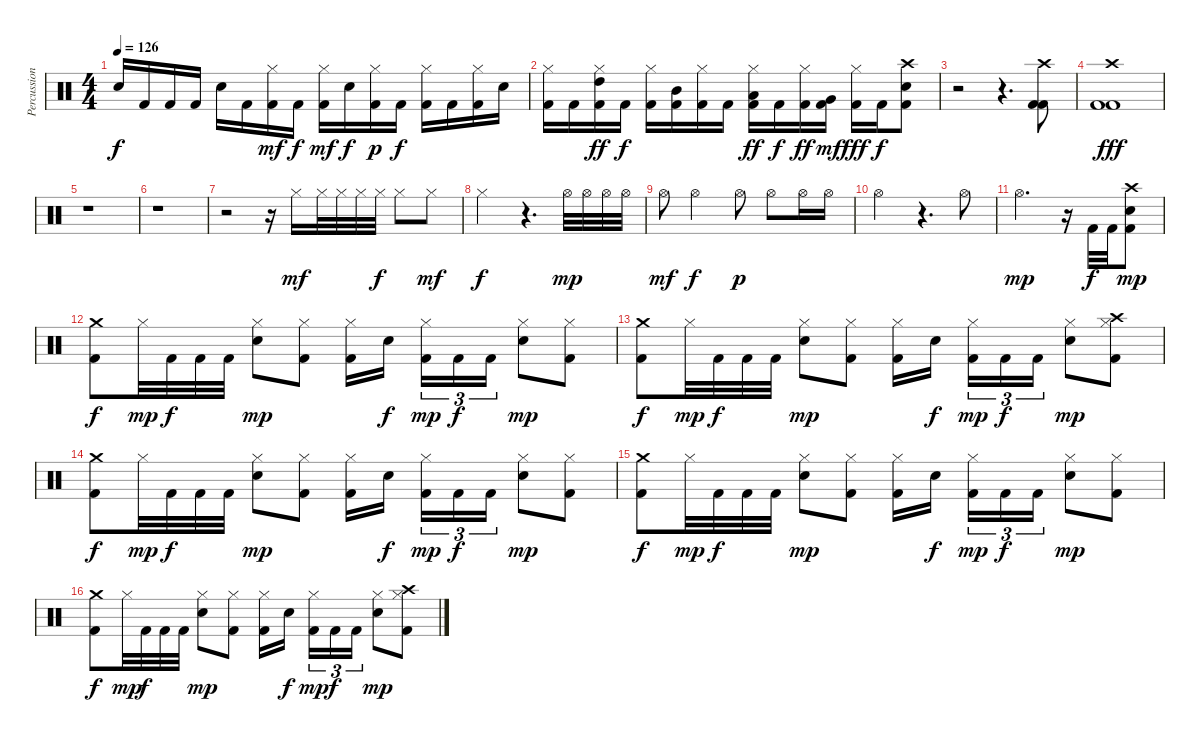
\track ("Percussion" "Percussion") {instrument percussion}
\staff {score}
\articulation defaults
\ts (4 4)
\tempo 126
\clef neutral
\ks c "Electric Snare (hit)".16{dy f} "Kick (hit) 2".16 "Kick (hit) 2".16 "Kick (hit) 2".16 "Electric Snare (hit)".16 "Kick (hit) 2".16
("Kick (hit) 2" "Hi-Hat (closed)").16{dy mf} "Kick (hit) 2".16{dy f} ("Kick (hit) 2" "Hi-Hat (closed)").16{dy mf} "Electric Snare (hit)".16{dy f} ("Kick (hit) 2" "Hi-Hat (closed)").16{dy p} "Kick (hit) 2".16{dy f} ("Kick (hit) 2" "Hi-Hat (closed)").16 "Kick (hit) 2".16 ("Kick (hit) 2" "Hi-Hat (closed)").16 "Electric Snare (hit)".16 |
("Kick (hit) 2" "Hi-Hat (closed)").16 "Kick (hit) 2".16 ("Kick (hit) 2" "High Tom (hit)" "Hi-Hat (closed)").16{dy ff} "Kick (hit) 2".16{dy f} ("Kick (hit) 2" "Hi-Hat (closed)").16 ("Kick (hit) 2" "Mid Tom (hit)").16 ("Kick (hit) 2" "Hi-Hat (closed)").16 "Kick (hit) 2".16 ("Kick (hit) 2" "Low Tom (hit)" "Hi-Hat (closed)").16{dy ff} "Kick (hit) 2".16{dy f} ("Kick (hit) 2" "Hi-Hat (closed)").16{dy ff} ("Kick (hit) 2" "Very Low Tom (hit)").16{dy mf} ("Kick (hit) 2" "Hi-Hat (closed)").16{dy fff} "Kick (hit) 2".16{dy f} ("Kick (hit) 2" "Electric Snare (hit)" "Crash high (hit)").8 |
r.2 r.4{d} ("Crash high (hit)" "Kick (hit) 2" "Kick (hit) 2").8 |
("Crash high (hit)" "Kick (hit) 2" "Kick (hit) 2").1{dy fff} |
r.1 |
r.1 |
r.2 r.16 "Hi-Hat (closed)".16{dy mf} "Hi-Hat (closed)".32 "Hi-Hat (closed)".32 "Hi-Hat (closed)".32 "Hi-Hat (closed)".32{dy f} "Hi-Hat (closed)".8 "Hi-Hat (closed)".8{dy mf} |
"Hi-Hat (closed)".2{dy f} r.4{d} "Hi-Hat (open)".32{dy mp} "Hi-Hat (open)".32 "Hi-Hat (open)".32 "Hi-Hat (open)".32 |
"Hi-Hat (open)".8{dy mf} "Hi-Hat (open)".2{dy f} "Hi-Hat (open)".8{dy p} "Hi-Hat (open)".8 "Hi-Hat (open)".16 "Hi-Hat (open)".16 |
"Hi-Hat (open)".2 r.4{d} "Hi-Hat (open)".8 |
"Hi-Hat (open)".2{d dy mp} r.16 "Kick (hit) 2".32{dy f} "Kick (hit) 2".32 ("Crash high (hit)" "Electric Snare (hit)" "Kick (hit) 2").8{dy mp} |
("Crash medium (hit)" "Kick (hit) 2").8{dy f} "Hi-Hat (closed)".32{dy mp} "Kick (hit) 2".32{dy f} "Kick (hit) 2".32 "Kick (hit) 2".32 ("Electric Snare (hit)" "Hi-Hat (closed)").8{dy mp} ("Kick (hit) 2" "Hi-Hat (closed)").8 ("Kick (hit) 2" "Hi-Hat (closed)").16 "Electric Snare (hit)".16{dy f beam splitsecondary} ("Kick (hit) 2" "Hi-Hat (closed)").16{tu (3 2) dy mp} "Kick (hit) 2".16{tu (3 2) dy f} "Kick (hit) 2".16{tu (3 2)} ("Electric Snare (hit)" "Hi-Hat (closed)").8{dy mp} ("Kick (hit) 2" "Hi-Hat (closed)").8 |
("Crash medium (hit)" "Kick (hit) 2").8{dy f} "Hi-Hat (closed)".32{dy mp} "Kick (hit) 2".32{dy f} "Kick (hit) 2".32 "Kick (hit) 2".32 ("Electric Snare (hit)" "Hi-Hat (closed)").8{dy mp} ("Kick (hit) 2" "Hi-Hat (closed)").8 ("Kick (hit) 2" "Hi-Hat (closed)").16 "Electric Snare (hit)".16{dy f beam splitsecondary} ("Kick (hit) 2" "Hi-Hat (closed)").16{tu (3 2) dy mp} "Kick (hit) 2".16{tu (3 2) dy f} "Kick (hit) 2".16{tu (3 2)} ("Electric Snare (hit)" "Hi-Hat (closed)").8{dy mp} ("Crash high (hit)" "Kick (hit) 2" "Hi-Hat (closed)").8 |
("Crash medium (hit)" "Kick (hit) 2").8{dy f} "Hi-Hat (closed)".32{dy mp} "Kick (hit) 2".32{dy f} "Kick (hit) 2".32 "Kick (hit) 2".32 ("Electric Snare (hit)" "Hi-Hat (closed)").8{dy mp} ("Kick (hit) 2" "Hi-Hat (closed)").8 ("Kick (hit) 2" "Hi-Hat (closed)").16 "Electric Snare (hit)".16{dy f beam splitsecondary} ("Kick (hit) 2" "Hi-Hat (closed)").16{tu (3 2) dy mp} "Kick (hit) 2".16{tu (3 2) dy f} "Kick (hit) 2".16{tu (3 2)} ("Electric Snare (hit)" "Hi-Hat (closed)").8{dy mp} ("Kick (hit) 2" "Hi-Hat (closed)").8 |
("Crash medium (hit)" "Kick (hit) 2").8{dy f} "Hi-Hat (closed)".32{dy mp} "Kick (hit) 2".32{dy f} "Kick (hit) 2".32 "Kick (hit) 2".32 ("Electric Snare (hit)" "Hi-Hat (closed)").8{dy mp} ("Kick (hit) 2" "Hi-Hat (closed)").8 ("Kick (hit) 2" "Hi-Hat (closed)").16 "Electric Snare (hit)".16{dy f beam splitsecondary} ("Kick (hit) 2" "Hi-Hat (closed)").16{tu (3 2) dy mp} "Kick (hit) 2".16{tu (3 2) dy f} "Kick (hit) 2".16{tu (3 2)} ("Electric Snare (hit)" "Hi-Hat (closed)").8{dy mp} ("Kick (hit) 2" "Hi-Hat (closed)").8 |
("Crash medium (hit)" "Kick (hit) 2").8{dy f} "Hi-Hat (closed)".32{dy mp} "Kick (hit) 2".32{dy f} "Kick (hit) 2".32 "Kick (hit) 2".32 ("Electric Snare (hit)" "Hi-Hat (closed)").8{dy mp} ("Kick (hit) 2" "Hi-Hat (closed)").8 ("Kick (hit) 2" "Hi-Hat (closed)").16 "Electric Snare (hit)".16{dy f beam splitsecondary} ("Kick (hit) 2" "Hi-Hat (closed)").16{tu (3 2) dy mp} "Kick (hit) 2".16{tu (3 2) dy f} "Kick (hit) 2".16{tu (3 2)} ("Electric Snare (hit)" "Hi-Hat (closed)").8{dy mp} ("Crash high (hit)" "Kick (hit) 2" "Hi-Hat (closed)").8
